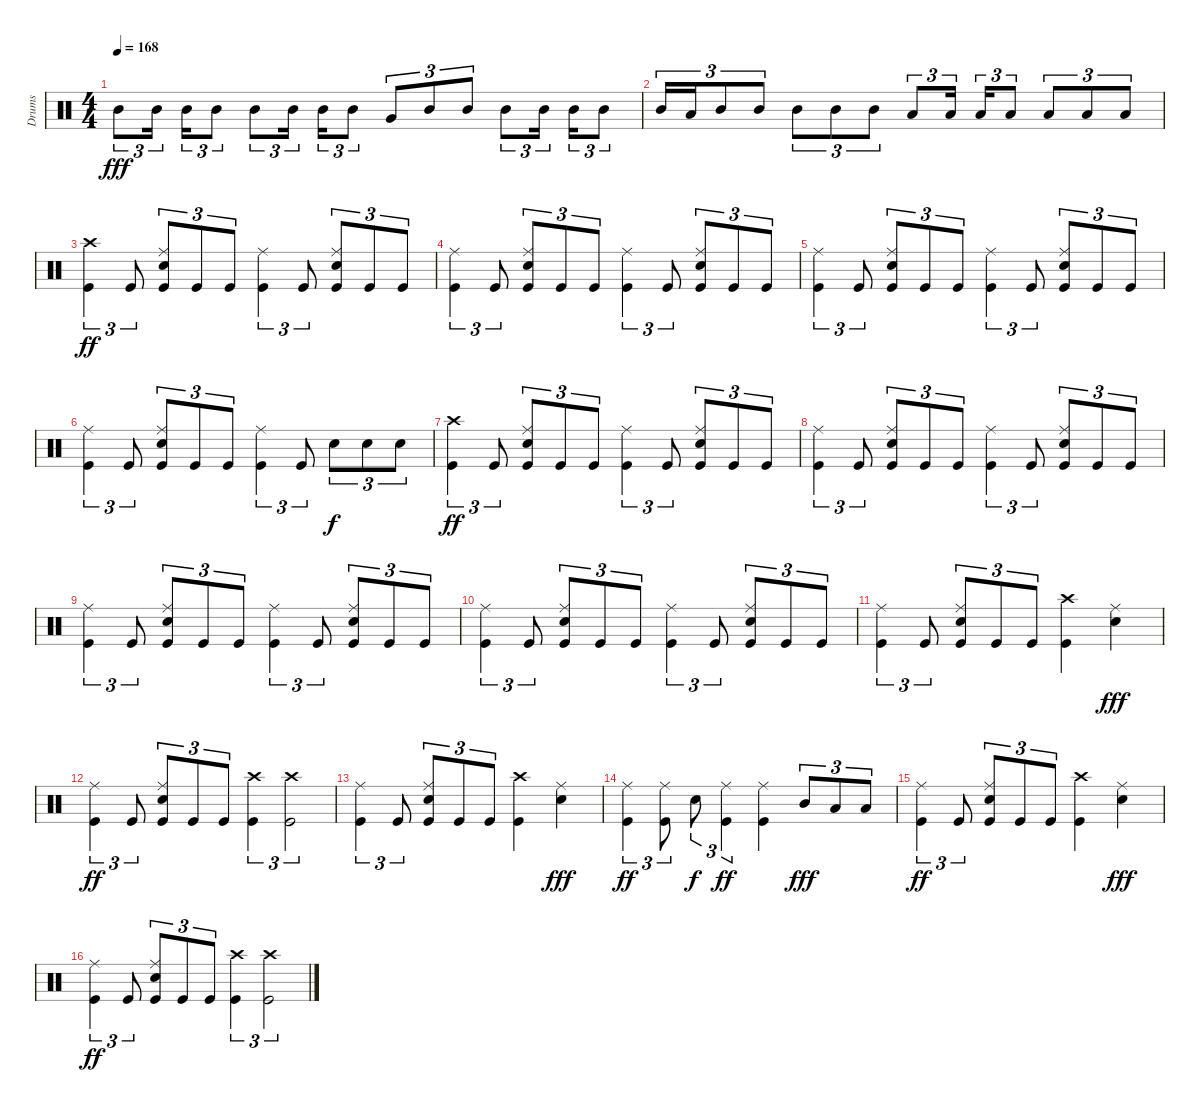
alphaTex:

\track ("Drums" "Drums") {instrument percussion}
\staff {score}
\articulation defaults
\ts (4 4)
\tempo 168
\clef neutral
\ks c "Mid Tom (hit)".8{tu (3 2) dy fff} "Mid Tom (hit)".16{tu (3 2)} "Mid Tom (hit)".16{tu (3 2)} "Mid Tom (hit)".8{tu (3 2)} "Mid Tom (hit)".8{tu (3 2)} "Mid Tom (hit)".16{tu (3 2)} "Mid Tom (hit)".16{tu (3 2)} "Mid Tom (hit)".8{tu (3 2)} "Very Low Tom (hit)".8{tu (3 2)} "Mid Tom (hit)".8{tu (3 2)} "Mid Tom (hit)".8{tu (3 2)} "Mid Tom (hit)".8{tu (3 2)} "Mid Tom (hit)".16{tu (3 2)} "Mid Tom (hit)".16{tu (3 2)} "Mid Tom (hit)".8{tu (3 2)}
|
"Mid Tom (hit)".16{tu (3 2)} "Low Tom (hit)".16{tu (3 2)} "Mid Tom (hit)".8{tu (3 2)} "Mid Tom (hit)".8{tu (3 2)} "Mid Tom (hit)".8{tu (3 2)} "Mid Tom (hit)".8{tu (3 2)} "Mid Tom (hit)".8{tu (3 2)} "Low Tom (hit)".8{tu (3 2)} "Low Tom (hit)".16{tu (3 2)} "Low Tom (hit)".16{tu (3 2)} "Low Tom (hit)".8{tu (3 2)} "Low Tom (hit)".8{tu (3 2)} "Low Tom (hit)".8{tu (3 2)} "Low Tom (hit)".8{tu (3 2)} |
("Crash high (hit)" "Kick (hit)").4{tu (3 2) dy ff} "Kick (hit)".8{tu (3 2)} ("Ride (middle)" "Electric Snare (hit)" "Kick (hit)").8{tu (3 2)} "Kick (hit)".8{tu (3 2)} "Kick (hit)".8{tu (3 2)} ("Ride (middle)" "Kick (hit)").4{tu (3 2)} "Kick (hit)".8{tu (3 2)} ("Ride (middle)" "Electric Snare (hit)" "Kick (hit)").8{tu (3 2)} "Kick (hit)".8{tu (3 2)} "Kick (hit)".8{tu (3 2)} |
("Ride (middle)" "Kick (hit)").4{tu (3 2)} "Kick (hit)".8{tu (3 2)} ("Ride (middle)" "Electric Snare (hit)" "Kick (hit)").8{tu (3 2)} "Kick (hit)".8{tu (3 2)} "Kick (hit)".8{tu (3 2)} ("Ride (middle)" "Kick (hit)").4{tu (3 2)} "Kick (hit)".8{tu (3 2)} ("Ride (middle)" "Electric Snare (hit)" "Kick (hit)").8{tu (3 2)} "Kick (hit)".8{tu (3 2)} "Kick (hit)".8{tu (3 2)} |
("Ride (middle)" "Kick (hit)").4{tu (3 2)} "Kick (hit)".8{tu (3 2)} ("Ride (middle)" "Electric Snare (hit)" "Kick (hit)").8{tu (3 2)} "Kick (hit)".8{tu (3 2)} "Kick (hit)".8{tu (3 2)} ("Ride (middle)" "Kick (hit)").4{tu (3 2)} "Kick (hit)".8{tu (3 2)} ("Ride (middle)" "Electric Snare (hit)" "Kick (hit)").8{tu (3 2)} "Kick (hit)".8{tu (3 2)} "Kick (hit)".8{tu (3 2)} |
("Ride (middle)" "Kick (hit)").4{tu (3 2)} "Kick (hit)".8{tu (3 2)} ("Ride (middle)" "Electric Snare (hit)" "Kick (hit)").8{tu (3 2)} "Kick (hit)".8{tu (3 2)} "Kick (hit)".8{tu (3 2)} ("Ride (middle)" "Kick (hit)").4{tu (3 2)} "Kick (hit)".8{tu (3 2)} "Electric Snare (hit)".8{tu (3 2) dy f} "Electric Snare (hit)".8{tu (3 2)} "Electric Snare (hit)".8{tu (3 2)} |
("Crash high (hit)" "Kick (hit)").4{tu (3 2) dy ff} "Kick (hit)".8{tu (3 2)} ("Ride (middle)" "Electric Snare (hit)" "Kick (hit)").8{tu (3 2)} "Kick (hit)".8{tu (3 2)} "Kick (hit)".8{tu (3 2)} ("Ride (middle)" "Kick (hit)").4{tu (3 2)} "Kick (hit)".8{tu (3 2)} ("Ride (middle)" "Electric Snare (hit)" "Kick (hit)").8{tu (3 2)} "Kick (hit)".8{tu (3 2)} "Kick (hit)".8{tu (3 2)} |
("Ride (middle)" "Kick (hit)").4{tu (3 2)} "Kick (hit)".8{tu (3 2)} ("Ride (middle)" "Electric Snare (hit)" "Kick (hit)").8{tu (3 2)} "Kick (hit)".8{tu (3 2)} "Kick (hit)".8{tu (3 2)} ("Ride (middle)" "Kick (hit)").4{tu (3 2)} "Kick (hit)".8{tu (3 2)} ("Ride (middle)" "Electric Snare (hit)" "Kick (hit)").8{tu (3 2)} "Kick (hit)".8{tu (3 2)} "Kick (hit)".8{tu (3 2)} |
("Ride (middle)" "Kick (hit)").4{tu (3 2)} "Kick (hit)".8{tu (3 2)} ("Ride (middle)" "Electric Snare (hit)" "Kick (hit)").8{tu (3 2)} "Kick (hit)".8{tu (3 2)} "Kick (hit)".8{tu (3 2)} ("Ride (middle)" "Kick (hit)").4{tu (3 2)} "Kick (hit)".8{tu (3 2)} ("Ride (middle)" "Electric Snare (hit)" "Kick (hit)").8{tu (3 2)} "Kick (hit)".8{tu (3 2)} "Kick (hit)".8{tu (3 2)} |
("Ride (middle)" "Kick (hit)").4{tu (3 2)} "Kick (hit)".8{tu (3 2)} ("Ride (middle)" "Electric Snare (hit)" "Kick (hit)").8{tu (3 2)} "Kick (hit)".8{tu (3 2)} "Kick (hit)".8{tu (3 2)} ("Ride (middle)" "Kick (hit)").4{tu (3 2)} "Kick (hit)".8{tu (3 2)} ("Ride (middle)" "Electric Snare (hit)" "Kick (hit)").8{tu (3 2)} "Kick (hit)".8{tu (3 2)} "Kick (hit)".8{tu (3 2)} |
("Ride (middle)" "Kick (hit)").4{tu (3 2)} "Kick (hit)".8{tu (3 2)} ("Ride (middle)" "Electric Snare (hit)" "Kick (hit)").8{tu (3 2)} "Kick (hit)".8{tu (3 2)} "Kick (hit)".8{tu (3 2)} ("Crash high (hit)" "Kick (hit)").4 ("Ride (middle)" "Electric Snare (hit)").4{dy fff} |
("Ride (middle)" "Kick (hit)").4{tu (3 2) dy ff} "Kick (hit)".8{tu (3 2)} ("Ride (middle)" "Electric Snare (hit)" "Kick (hit)").8{tu (3 2)} "Kick (hit)".8{tu (3 2)} "Kick (hit)".8{tu (3 2)} ("Crash high (hit)" "Kick (hit)").4{tu (3 2)} ("Crash high (hit)" "Kick (hit)").2{tu (3 2)} |
("Ride (middle)" "Kick (hit)").4{tu (3 2)} "Kick (hit)".8{tu (3 2)} ("Ride (middle)" "Electric Snare (hit)" "Kick (hit)").8{tu (3 2)} "Kick (hit)".8{tu (3 2)} "Kick (hit)".8{tu (3 2)} ("Crash high (hit)" "Kick (hit)").4 ("Ride (middle)" "Electric Snare (hit)").4{dy fff} |
("Ride (middle)" "Kick (hit)").4{tu (3 2) dy ff} ("Ride (middle)" "Kick (hit)").8{tu (3 2)} "Electric Snare (hit)".8{tu (3 2) dy f} ("Ride (middle)" "Kick (hit)").4{tu (3 2) dy ff} ("Ride (middle)" "Kick (hit)").4 "Mid Tom (hit)".8{tu (3 2) dy fff} "Low Tom (hit)".8{tu (3 2)} "Low Tom (hit)".8{tu (3 2)} |
("Ride (middle)" "Kick (hit)").4{tu (3 2) dy ff} "Kick (hit)".8{tu (3 2)} ("Ride (middle)" "Electric Snare (hit)" "Kick (hit)").8{tu (3 2)} "Kick (hit)".8{tu (3 2)} "Kick (hit)".8{tu (3 2)} ("Crash high (hit)" "Kick (hit)").4 ("Ride (middle)" "Electric Snare (hit)").4{dy fff} |
("Ride (middle)" "Kick (hit)").4{tu (3 2) dy ff} "Kick (hit)".8{tu (3 2)} ("Ride (middle)" "Electric Snare (hit)" "Kick (hit)").8{tu (3 2)} "Kick (hit)".8{tu (3 2)} "Kick (hit)".8{tu (3 2)} ("Crash high (hit)" "Kick (hit)").4{tu (3 2)} ("Crash high (hit)" "Kick (hit)").2{tu (3 2)}
